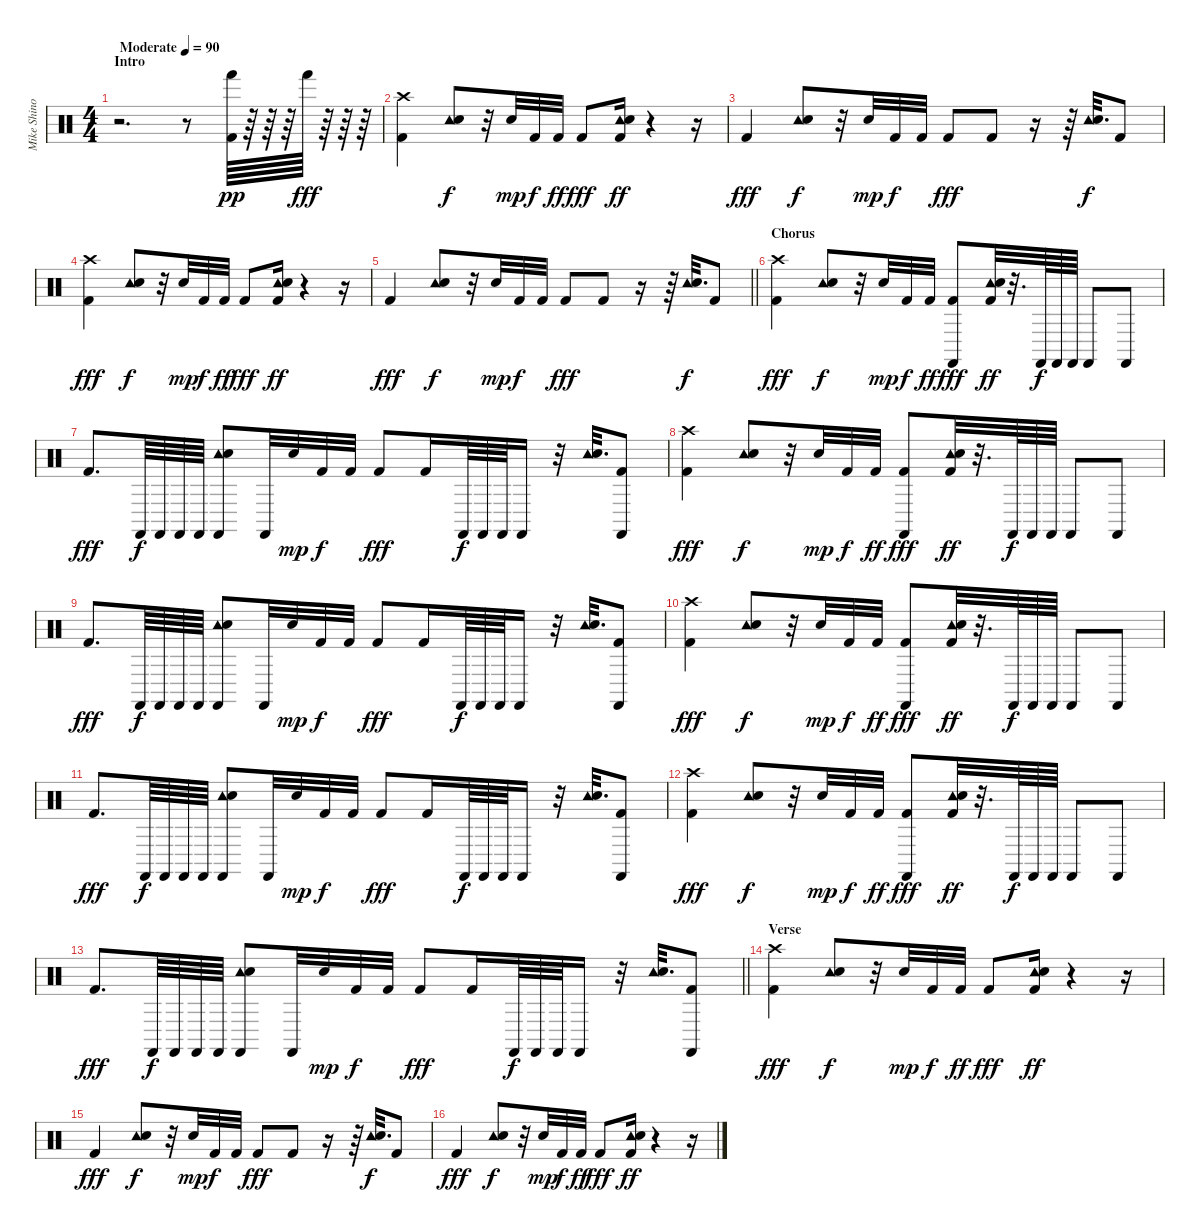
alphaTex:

\track ("Mike Shinoda - Percussion" "Mike Shino") {instrument percussion}
\staff {score}
\articulation defaults
\ts (4 4)
\section ("" "Intro")
\tempo (90 "Moderate")
\clef neutral
\ks c
r.2{d dy pp} r.8 ("Hand (hit)" "Kick (hit) 2").64{volume 15} r.64{volume 10} r.64{volume 7} r.64{volume 3} "Hand (hit)".64{dy fff volume 8} r.64{volume 11} r.64{volume 14} r.64{volume 16} |
("Crash high (hit)" "Kick (hit) 2").4{volume 13} ("Tambourine (hit)" "Electric Snare (hit)").8{dy f} r.32 "Snare (hit) 2".32{dy mp} "Kick (hit) 2".32{dy f} "Kick (hit) 2".32{dy ff} "Kick (hit) 2".8{dy fff} ("Tambourine (hit)" "Electric Snare (hit)" "Kick (hit) 2").16{dy ff} r.4 r.16 |
"Kick (hit) 2".4{dy fff} ("Tambourine (hit)" "Electric Snare (hit)").8{dy f} r.32 "Snare (hit) 2".32{dy mp} "Kick (hit) 2".32{dy f} "Kick (hit) 2".32 "Kick (hit) 2".8{dy fff} "Kick (hit) 2".8 r.16 r.64 ("Tambourine (hit)" "Electric Snare (hit)").32{d dy f} "Kick (hit) 2".8 |
("Crash high (hit)" "Kick (hit) 2").4{dy fff} ("Tambourine (hit)" "Electric Snare (hit)").8{dy f} r.32 "Snare (hit) 2".32{dy mp} "Kick (hit) 2".32{dy f} "Kick (hit) 2".32{dy ff} "Kick (hit) 2".8{dy fff} ("Tambourine (hit)" "Electric Snare (hit)" "Kick (hit) 2").16{dy ff} r.4 r.16 |
\barLineRight lightlight "Kick (hit) 2".4{dy fff}
("Tambourine (hit)" "Electric Snare (hit)").8{dy f} r.32 "Snare (hit) 2".32{dy mp} "Kick (hit) 2".32{dy f} "Kick (hit) 2".32 "Kick (hit) 2".8{dy fff} "Kick (hit) 2".8 r.16 r.64 ("Tambourine (hit)" "Electric Snare (hit)").32{d dy f} "Kick (hit) 2".8 |
\section ("" "Chorus")
("Crash high (hit)" "Kick (hit) 2").4{dy fff} ("Tambourine (hit)" "Electric Snare (hit)").8{dy f} r.32 "Snare (hit) 2".32{dy mp} "Kick (hit) 2".32{dy f} "Kick (hit) 2".32{dy ff} ("Castanets (hit)" "Kick (hit) 2").8{dy fff} ("Tambourine (hit)" "Electric Snare (hit)" "Kick (hit) 2").32{dy ff} r.32{d} "Castanets (hit)".64{dy f} "Castanets (hit)".64 "Castanets (hit)".64 "Castanets (hit)".8 "Castanets (hit)".8 |
"Kick (hit) 2".8{d dy fff} "Castanets (hit)".64{dy f} "Castanets (hit)".64 "Castanets (hit)".64 "Castanets (hit)".64 ("Castanets (hit)" "Tambourine (hit)" "Electric Snare (hit)").8 "Castanets (hit)".32 "Snare (hit) 2".32{dy mp} "Kick (hit) 2".32{dy f} "Kick (hit) 2".32 "Kick (hit) 2".8{dy fff} "Kick (hit) 2".16 "Castanets (hit)".64{dy f} "Castanets (hit)".64 "Castanets (hit)".64 "Castanets (hit)".16 r.32 ("Tambourine (hit)" "Electric Snare (hit)").32{d} ("Castanets (hit)" "Kick (hit) 2").8 |
("Crash high (hit)" "Kick (hit) 2").4{dy fff} ("Tambourine (hit)" "Electric Snare (hit)").8{dy f} r.32 "Snare (hit) 2".32{dy mp} "Kick (hit) 2".32{dy f} "Kick (hit) 2".32{dy ff} ("Castanets (hit)" "Kick (hit) 2").8{dy fff} ("Tambourine (hit)" "Electric Snare (hit)" "Kick (hit) 2").32{dy ff} r.32{d} "Castanets (hit)".64{dy f} "Castanets (hit)".64 "Castanets (hit)".64 "Castanets (hit)".8 "Castanets (hit)".8 |
"Kick (hit) 2".8{d dy fff} "Castanets (hit)".64{dy f} "Castanets (hit)".64 "Castanets (hit)".64 "Castanets (hit)".64 ("Castanets (hit)" "Tambourine (hit)" "Electric Snare (hit)").8 "Castanets (hit)".32 "Snare (hit) 2".32{dy mp} "Kick (hit) 2".32{dy f} "Kick (hit) 2".32 "Kick (hit) 2".8{dy fff} "Kick (hit) 2".16 "Castanets (hit)".64{dy f} "Castanets (hit)".64 "Castanets (hit)".64 "Castanets (hit)".16 r.32 ("Tambourine (hit)" "Electric Snare (hit)").32{d} ("Castanets (hit)" "Kick (hit) 2").8 |
("Crash high (hit)" "Kick (hit) 2").4{dy fff} ("Tambourine (hit)" "Electric Snare (hit)").8{dy f} r.32 "Snare (hit) 2".32{dy mp} "Kick (hit) 2".32{dy f} "Kick (hit) 2".32{dy ff} ("Castanets (hit)" "Kick (hit) 2").8{dy fff} ("Tambourine (hit)" "Electric Snare (hit)" "Kick (hit) 2").32{dy ff} r.32{d} "Castanets (hit)".64{dy f} "Castanets (hit)".64 "Castanets (hit)".64 "Castanets (hit)".8 "Castanets (hit)".8 |
"Kick (hit) 2".8{d dy fff} "Castanets (hit)".64{dy f} "Castanets (hit)".64 "Castanets (hit)".64 "Castanets (hit)".64 ("Castanets (hit)" "Tambourine (hit)" "Electric Snare (hit)").8 "Castanets (hit)".32 "Snare (hit) 2".32{dy mp} "Kick (hit) 2".32{dy f} "Kick (hit) 2".32 "Kick (hit) 2".8{dy fff} "Kick (hit) 2".16 "Castanets (hit)".64{dy f} "Castanets (hit)".64 "Castanets (hit)".64 "Castanets (hit)".16 r.32 ("Tambourine (hit)" "Electric Snare (hit)").32{d} ("Castanets (hit)" "Kick (hit) 2").8 |
("Crash high (hit)" "Kick (hit) 2").4{dy fff} ("Tambourine (hit)" "Electric Snare (hit)").8{dy f} r.32 "Snare (hit) 2".32{dy mp} "Kick (hit) 2".32{dy f} "Kick (hit) 2".32{dy ff} ("Castanets (hit)" "Kick (hit) 2").8{dy fff} ("Tambourine (hit)" "Electric Snare (hit)" "Kick (hit) 2").32{dy ff} r.32{d} "Castanets (hit)".64{dy f} "Castanets (hit)".64 "Castanets (hit)".64 "Castanets (hit)".8 "Castanets (hit)".8 |
\barLineRight lightlight "Kick (hit) 2".8{d dy fff} "Castanets (hit)".64{dy f} "Castanets (hit)".64 "Castanets (hit)".64 "Castanets (hit)".64
("Castanets (hit)" "Tambourine (hit)" "Electric Snare (hit)").8 "Castanets (hit)".32 "Snare (hit) 2".32{dy mp} "Kick (hit) 2".32{dy f} "Kick (hit) 2".32 "Kick (hit) 2".8{dy fff} "Kick (hit) 2".16 "Castanets (hit)".64{dy f} "Castanets (hit)".64 "Castanets (hit)".64 "Castanets (hit)".16 r.32 ("Tambourine (hit)" "Electric Snare (hit)").32{d} ("Castanets (hit)" "Kick (hit) 2").8 |
\section ("" "Verse")
("Crash high (hit)" "Kick (hit) 2").4{dy fff} ("Tambourine (hit)" "Electric Snare (hit)").8{dy f} r.32 "Snare (hit) 2".32{dy mp} "Kick (hit) 2".32{dy f} "Kick (hit) 2".32{dy ff} "Kick (hit) 2".8{dy fff} ("Tambourine (hit)" "Electric Snare (hit)" "Kick (hit) 2").16{dy ff} r.4 r.16 |
"Kick (hit) 2".4{dy fff} ("Tambourine (hit)" "Electric Snare (hit)").8{dy f} r.32 "Snare (hit) 2".32{dy mp} "Kick (hit) 2".32{dy f} "Kick (hit) 2".32 "Kick (hit) 2".8{dy fff} "Kick (hit) 2".8 r.16 r.64 ("Tambourine (hit)" "Electric Snare (hit)").32{d dy f} "Kick (hit) 2".8 |
"Kick (hit) 2".4{dy fff} ("Tambourine (hit)" "Electric Snare (hit)").8{dy f} r.32 "Snare (hit) 2".32{dy mp} "Kick (hit) 2".32{dy f} "Kick (hit) 2".32{dy ff} "Kick (hit) 2".8{dy fff} ("Tambourine (hit)" "Electric Snare (hit)" "Kick (hit) 2").16{dy ff} r.4 r.16
